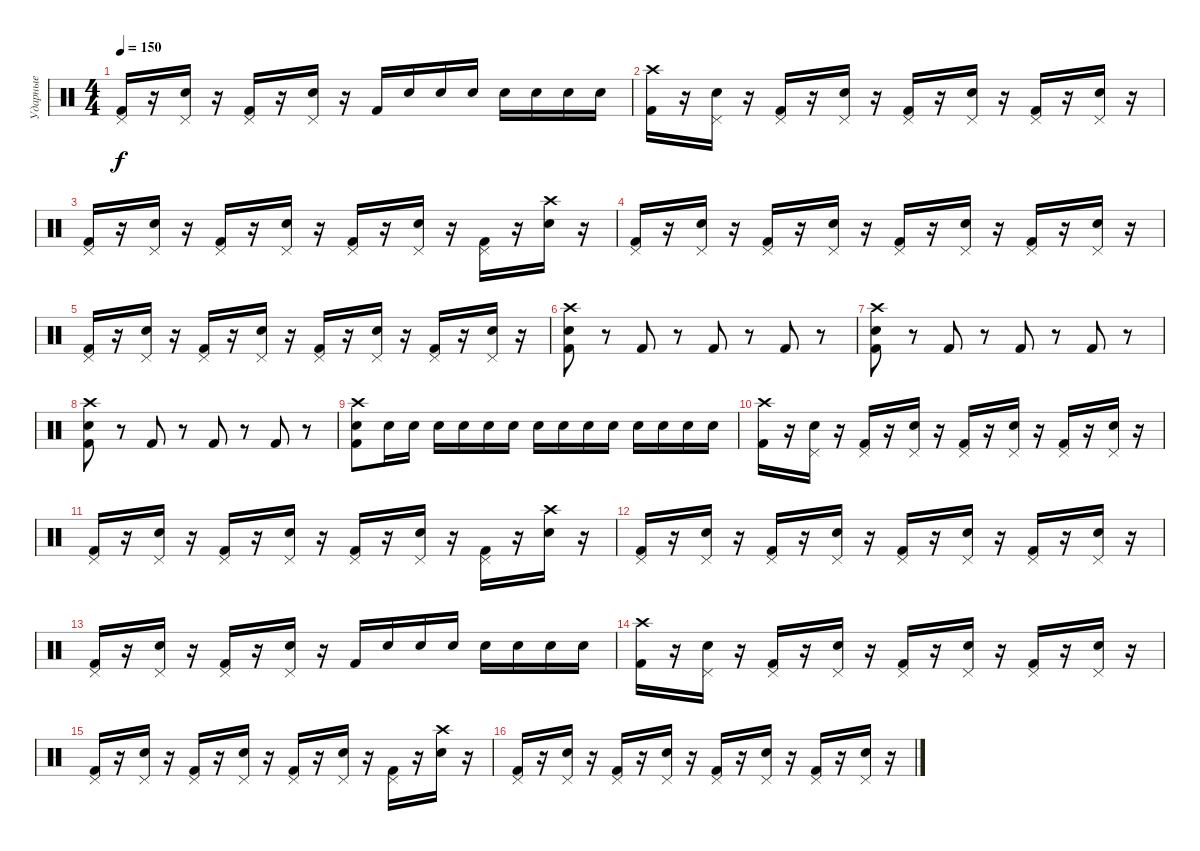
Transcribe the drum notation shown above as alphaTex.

\track ("Ударные" "Ударные") {instrument percussion}
\staff {score}
\articulation defaults
\ts (4 4)
\tempo 150
\clef neutral
\ks c
("Kick (hit) 2" "Pedal Hi-Hat (hit)").16{dy f} r.16 ("Electric Snare (hit)" "Pedal Hi-Hat (hit)").16 r.16 ("Kick (hit) 2" "Pedal Hi-Hat (hit)").16 r.16 ("Electric Snare (hit)" "Pedal Hi-Hat (hit)").16 r.16 "Kick (hit) 2".16 "Electric Snare (hit)".16 "Electric Snare (hit)".16 "Electric Snare (hit)".16 "Electric Snare (hit)".16 "Electric Snare (hit)".16 "Electric Snare (hit)".16 "Electric Snare (hit)".16 |
("Kick (hit) 2" "Crash high (hit)").16 r.16 ("Electric Snare (hit)" "Pedal Hi-Hat (hit)").16 r.16 ("Kick (hit) 2" "Pedal Hi-Hat (hit)").16 r.16 ("Electric Snare (hit)" "Pedal Hi-Hat (hit)").16 r.16 ("Kick (hit) 2" "Pedal Hi-Hat (hit)").16 r.16 ("Electric Snare (hit)" "Pedal Hi-Hat (hit)").16 r.16 ("Kick (hit) 2" "Pedal Hi-Hat (hit)").16 r.16 ("Electric Snare (hit)" "Pedal Hi-Hat (hit)").16 r.16 |
("Kick (hit) 2" "Pedal Hi-Hat (hit)").16 r.16 ("Electric Snare (hit)" "Pedal Hi-Hat (hit)").16 r.16 ("Kick (hit) 2" "Pedal Hi-Hat (hit)").16 r.16 ("Electric Snare (hit)" "Pedal Hi-Hat (hit)").16 r.16 ("Kick (hit) 2" "Pedal Hi-Hat (hit)").16 r.16 ("Electric Snare (hit)" "Pedal Hi-Hat (hit)").16 r.16 ("Kick (hit) 2" "Pedal Hi-Hat (hit)").16 r.16 ("Electric Snare (hit)" "Crash high (hit)").16 r.16 |
("Kick (hit) 2" "Pedal Hi-Hat (hit)").16 r.16 ("Electric Snare (hit)" "Pedal Hi-Hat (hit)").16 r.16 ("Kick (hit) 2" "Pedal Hi-Hat (hit)").16 r.16 ("Electric Snare (hit)" "Pedal Hi-Hat (hit)").16 r.16 ("Kick (hit) 2" "Pedal Hi-Hat (hit)").16 r.16 ("Electric Snare (hit)" "Pedal Hi-Hat (hit)").16 r.16 ("Kick (hit) 2" "Pedal Hi-Hat (hit)").16 r.16 ("Electric Snare (hit)" "Pedal Hi-Hat (hit)").16 r.16 |
("Kick (hit) 2" "Pedal Hi-Hat (hit)").16 r.16 ("Electric Snare (hit)" "Pedal Hi-Hat (hit)").16 r.16 ("Kick (hit) 2" "Pedal Hi-Hat (hit)").16 r.16 ("Electric Snare (hit)" "Pedal Hi-Hat (hit)").16 r.16 ("Kick (hit) 2" "Pedal Hi-Hat (hit)").16 r.16 ("Electric Snare (hit)" "Pedal Hi-Hat (hit)").16 r.16 ("Kick (hit) 2" "Pedal Hi-Hat (hit)").16 r.16 ("Electric Snare (hit)" "Pedal Hi-Hat (hit)").16 r.16 |
("Electric Snare (hit)" "Crash high (hit)" "Kick (hit) 2").8 r.8 "Kick (hit) 2".8 r.8 "Kick (hit) 2".8 r.8 "Kick (hit) 2".8 r.8 |
("Electric Snare (hit)" "Crash high (hit)" "Kick (hit) 2").8 r.8 "Kick (hit) 2".8 r.8 "Kick (hit) 2".8 r.8 "Kick (hit) 2".8 r.8 |
("Electric Snare (hit)" "Crash high (hit)" "Kick (hit) 2").8 r.8 "Kick (hit) 2".8 r.8 "Kick (hit) 2".8 r.8 "Kick (hit) 2".8 r.8 |
("Electric Snare (hit)" "Crash high (hit)" "Kick (hit) 2").8 "Electric Snare (hit)".16 "Electric Snare (hit)".16 "Electric Snare (hit)".16 "Electric Snare (hit)".16 "Electric Snare (hit)".16 "Electric Snare (hit)".16 "Electric Snare (hit)".16 "Electric Snare (hit)".16 "Electric Snare (hit)".16 "Electric Snare (hit)".16 "Electric Snare (hit)".16 "Electric Snare (hit)".16 "Electric Snare (hit)".16 "Electric Snare (hit)".16 |
("Kick (hit) 2" "Crash high (hit)").16 r.16 ("Electric Snare (hit)" "Pedal Hi-Hat (hit)").16 r.16 ("Kick (hit) 2" "Pedal Hi-Hat (hit)").16 r.16 ("Electric Snare (hit)" "Pedal Hi-Hat (hit)").16 r.16 ("Kick (hit) 2" "Pedal Hi-Hat (hit)").16 r.16 ("Electric Snare (hit)" "Pedal Hi-Hat (hit)").16 r.16 ("Kick (hit) 2" "Pedal Hi-Hat (hit)").16 r.16 ("Electric Snare (hit)" "Pedal Hi-Hat (hit)").16 r.16 |
("Kick (hit) 2" "Pedal Hi-Hat (hit)").16 r.16 ("Electric Snare (hit)" "Pedal Hi-Hat (hit)").16 r.16 ("Kick (hit) 2" "Pedal Hi-Hat (hit)").16 r.16 ("Electric Snare (hit)" "Pedal Hi-Hat (hit)").16 r.16 ("Kick (hit) 2" "Pedal Hi-Hat (hit)").16 r.16 ("Electric Snare (hit)" "Pedal Hi-Hat (hit)").16 r.16 ("Kick (hit) 2" "Pedal Hi-Hat (hit)").16 r.16 ("Electric Snare (hit)" "Crash high (hit)").16 r.16 |
("Kick (hit) 2" "Pedal Hi-Hat (hit)").16 r.16 ("Electric Snare (hit)" "Pedal Hi-Hat (hit)").16 r.16 ("Kick (hit) 2" "Pedal Hi-Hat (hit)").16 r.16 ("Electric Snare (hit)" "Pedal Hi-Hat (hit)").16 r.16 ("Kick (hit) 2" "Pedal Hi-Hat (hit)").16 r.16 ("Electric Snare (hit)" "Pedal Hi-Hat (hit)").16 r.16 ("Kick (hit) 2" "Pedal Hi-Hat (hit)").16 r.16 ("Electric Snare (hit)" "Pedal Hi-Hat (hit)").16 r.16 |
("Kick (hit) 2" "Pedal Hi-Hat (hit)").16 r.16 ("Electric Snare (hit)" "Pedal Hi-Hat (hit)").16 r.16 ("Kick (hit) 2" "Pedal Hi-Hat (hit)").16 r.16 ("Electric Snare (hit)" "Pedal Hi-Hat (hit)").16 r.16 "Kick (hit) 2".16 "Electric Snare (hit)".16 "Electric Snare (hit)".16 "Electric Snare (hit)".16 "Electric Snare (hit)".16 "Electric Snare (hit)".16 "Electric Snare (hit)".16 "Electric Snare (hit)".16 |
("Kick (hit) 2" "Crash high (hit)").16 r.16 ("Electric Snare (hit)" "Pedal Hi-Hat (hit)").16 r.16 ("Kick (hit) 2" "Pedal Hi-Hat (hit)").16 r.16 ("Electric Snare (hit)" "Pedal Hi-Hat (hit)").16 r.16 ("Kick (hit) 2" "Pedal Hi-Hat (hit)").16 r.16 ("Electric Snare (hit)" "Pedal Hi-Hat (hit)").16 r.16 ("Kick (hit) 2" "Pedal Hi-Hat (hit)").16 r.16 ("Electric Snare (hit)" "Pedal Hi-Hat (hit)").16 r.16 |
("Kick (hit) 2" "Pedal Hi-Hat (hit)").16 r.16 ("Electric Snare (hit)" "Pedal Hi-Hat (hit)").16 r.16 ("Kick (hit) 2" "Pedal Hi-Hat (hit)").16 r.16 ("Electric Snare (hit)" "Pedal Hi-Hat (hit)").16 r.16 ("Kick (hit) 2" "Pedal Hi-Hat (hit)").16 r.16 ("Electric Snare (hit)" "Pedal Hi-Hat (hit)").16 r.16 ("Kick (hit) 2" "Pedal Hi-Hat (hit)").16 r.16 ("Electric Snare (hit)" "Crash high (hit)").16 r.16 |
("Kick (hit) 2" "Pedal Hi-Hat (hit)").16 r.16 ("Electric Snare (hit)" "Pedal Hi-Hat (hit)").16 r.16 ("Kick (hit) 2" "Pedal Hi-Hat (hit)").16 r.16 ("Electric Snare (hit)" "Pedal Hi-Hat (hit)").16 r.16 ("Kick (hit) 2" "Pedal Hi-Hat (hit)").16 r.16 ("Electric Snare (hit)" "Pedal Hi-Hat (hit)").16 r.16 ("Kick (hit) 2" "Pedal Hi-Hat (hit)").16 r.16 ("Electric Snare (hit)" "Pedal Hi-Hat (hit)").16 r.16
